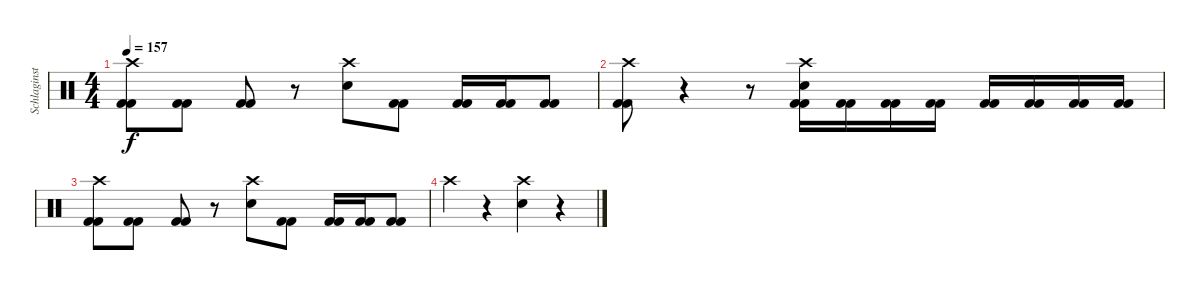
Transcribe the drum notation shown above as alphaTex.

\track ("Schlaginstrumente - Auswahl" "Schlaginst") {instrument percussion}
\staff {score}
\articulation defaults
\ts (4 4)
\tempo 157
\clef neutral
\ks c
("Crash high (hit)" "Kick (hit) 2" "Kick (hit) 2").8{dy f} ("Kick (hit) 2" "Kick (hit) 2").8 ("Kick (hit) 2" "Kick (hit) 2").8 r.8 ("Crash high (hit)" "Electric Snare (hit)").8 ("Kick (hit) 2" "Kick (hit) 2").8 ("Kick (hit) 2" "Kick (hit) 2").16 ("Kick (hit) 2" "Kick (hit) 2").16 ("Kick (hit) 2" "Kick (hit) 2").8 |
("Crash high (hit)" "Kick (hit) 2" "Kick (hit) 2").8 r.4 r.8 ("Crash high (hit)" "Electric Snare (hit)" "Kick (hit) 2" "Kick (hit) 2").16 ("Kick (hit) 2" "Kick (hit) 2").16 ("Kick (hit) 2" "Kick (hit) 2").16 ("Kick (hit) 2" "Kick (hit) 2").16 ("Kick (hit) 2" "Kick (hit) 2").16 ("Kick (hit) 2" "Kick (hit) 2").16 ("Kick (hit) 2" "Kick (hit) 2").16 ("Kick (hit) 2" "Kick (hit) 2").16 |
("Crash high (hit)" "Kick (hit) 2" "Kick (hit) 2").8 ("Kick (hit) 2" "Kick (hit) 2").8 ("Kick (hit) 2" "Kick (hit) 2").8 r.8 ("Crash high (hit)" "Electric Snare (hit)").8 ("Kick (hit) 2" "Kick (hit) 2").8 ("Kick (hit) 2" "Kick (hit) 2").16 ("Kick (hit) 2" "Kick (hit) 2").16 ("Kick (hit) 2" "Kick (hit) 2").8 |
"Crash high (hit)".4 r.4 ("Crash high (hit)" "Electric Snare (hit)").4 r.4
